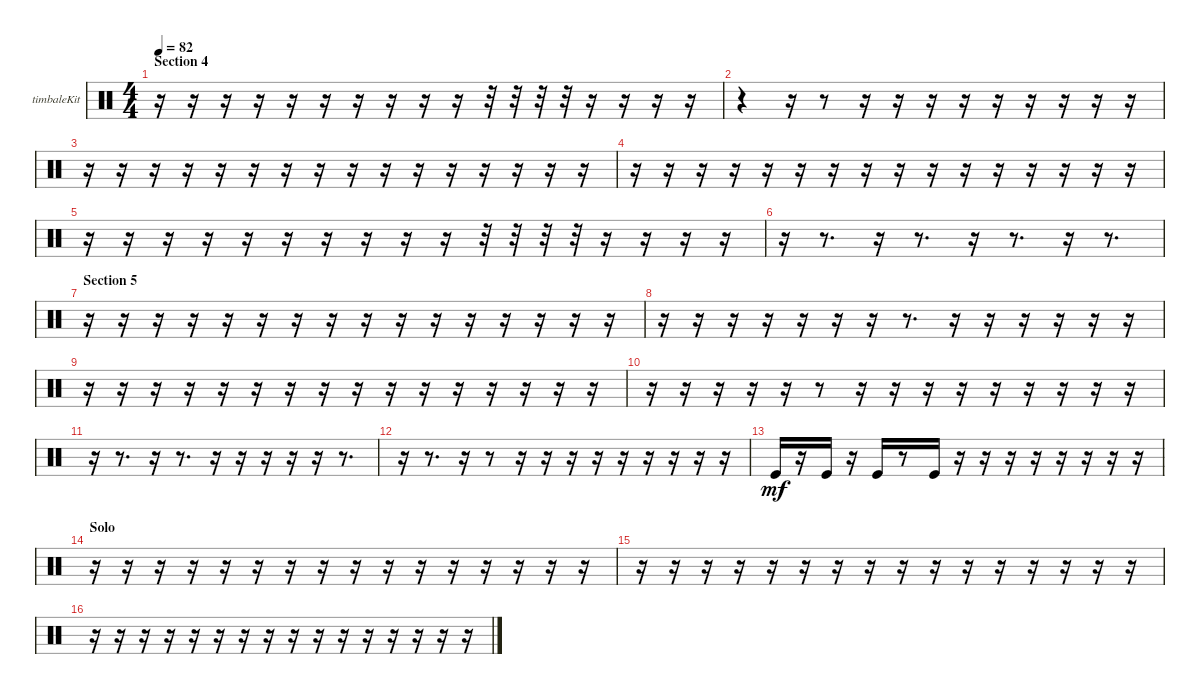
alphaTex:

\bracketExtendMode groupsimilarinstruments
\firstSystemTrackNameOrientation horizontal
\otherSystemsTrackNameOrientation horizontal
\track ("Timbale" "timbaleKit") {instrument percussion}
\staff {score}
\articulation defaults
\ts (4 4)
\section ("" "Section 4")
\tempo 82
\clef neutral
\ks aminor
r.16{dy mf} r.16 r.16 r.16 r.16 r.16 r.16 r.16 r.16 r.16 r.32 r.32 r.32 r.32 r.16 r.16 r.16 r.16 |
r.4 r.16 r.8 r.16 r.16 r.16 r.16 r.16 r.16 r.16 r.16 r.16 |
r.16 r.16 r.16 r.16 r.16 r.16 r.16 r.16 r.16 r.16 r.16 r.16 r.16 r.16 r.16 r.16 |
r.16 r.16 r.16 r.16 r.16 r.16 r.16 r.16 r.16 r.16 r.16 r.16 r.16 r.16 r.16 r.16 |
r.16 r.16 r.16 r.16 r.16 r.16 r.16 r.16 r.16 r.16 r.32 r.32 r.32 r.32 r.16 r.16 r.16 r.16 |
r.16 r.8{d} r.16 r.8{d} r.16 r.8{d} r.16 r.8{d} |
\section ("" "Section 5")
r.16 r.16 r.16 r.16 r.16 r.16 r.16 r.16 r.16 r.16 r.16 r.16 r.16 r.16 r.16 r.16 |
r.16 r.16 r.16 r.16 r.16 r.16 r.16 r.8{d} r.16 r.16 r.16 r.16 r.16 r.16 |
r.16 r.16 r.16 r.16 r.16 r.16 r.16 r.16 r.16 r.16 r.16 r.16 r.16 r.16 r.16 r.16 |
r.16 r.16 r.16 r.16 r.16 r.8 r.16 r.16 r.16 r.16 r.16 r.16 r.16 r.16 r.16 |
r.16 r.8{d} r.16 r.8{d} r.16 r.16 r.16 r.16 r.16 r.8{d} |
r.16 r.8{d} r.16 r.8 r.16 r.16 r.16 r.16 r.16 r.16 r.16 r.16 r.16 |
"Kick (hit)".16 r.16 "Kick (hit)".16 r.16 "Kick (hit)".16 r.8 "Kick (hit)".16 r.16 r.16 r.16 r.16 r.16 r.16 r.16 r.16 |
\section ("" "Solo")
r.16 r.16 r.16 r.16 r.16 r.16 r.16 r.16 r.16 r.16 r.16 r.16 r.16 r.16 r.16 r.16 |
r.16 r.16 r.16 r.16 r.16 r.16 r.16 r.16 r.16 r.16 r.16 r.16 r.16 r.16 r.16 r.16 |
r.16 r.16 r.16 r.16 r.16 r.16 r.16 r.16 r.16 r.16 r.16 r.16 r.16 r.16 r.16 r.16
